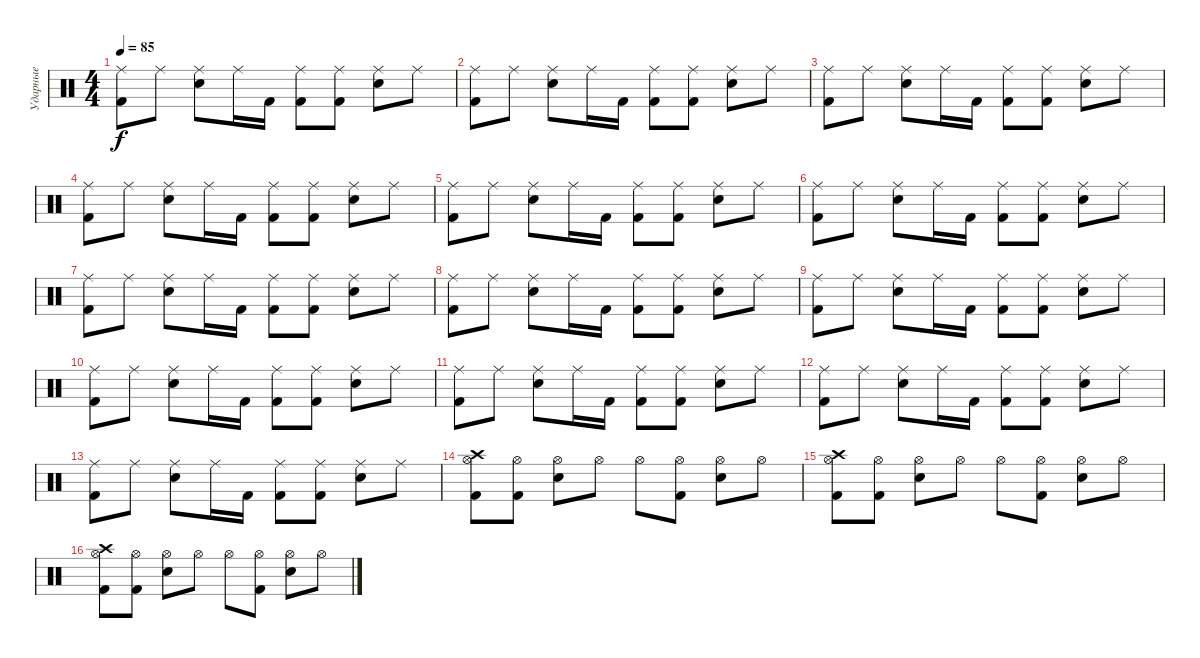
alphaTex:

\track ("Ударные" "Ударные") {instrument percussion}
\staff {score}
\articulation defaults
\ts (4 4)
\tempo 85
\clef neutral
\ks c
("Ride (middle)" "Kick (hit) 2").8{dy f} "Ride (middle)".8 ("Ride (middle)" "Snare (hit) 2").8 "Ride (middle)".16 "Kick (hit) 2".16 ("Ride (middle)" "Kick (hit) 2").8 ("Ride (middle)" "Kick (hit) 2").8 ("Ride (middle)" "Snare (hit) 2").8 "Ride (middle)".8 |
("Ride (middle)" "Kick (hit) 2").8 "Ride (middle)".8 ("Ride (middle)" "Snare (hit) 2").8 "Ride (middle)".16 "Kick (hit) 2".16 ("Ride (middle)" "Kick (hit) 2").8 ("Ride (middle)" "Kick (hit) 2").8 ("Ride (middle)" "Snare (hit) 2").8 "Ride (middle)".8 |
("Ride (middle)" "Kick (hit) 2").8 "Ride (middle)".8 ("Ride (middle)" "Snare (hit) 2").8 "Ride (middle)".16 "Kick (hit) 2".16 ("Ride (middle)" "Kick (hit) 2").8 ("Ride (middle)" "Kick (hit) 2").8 ("Ride (middle)" "Snare (hit) 2").8 "Ride (middle)".8 |
("Ride (middle)" "Kick (hit) 2").8 "Ride (middle)".8 ("Ride (middle)" "Snare (hit) 2").8 "Ride (middle)".16 "Kick (hit) 2".16 ("Ride (middle)" "Kick (hit) 2").8 ("Ride (middle)" "Kick (hit) 2").8 ("Ride (middle)" "Snare (hit) 2").8 "Ride (middle)".8 |
("Ride (middle)" "Kick (hit) 2").8 "Ride (middle)".8 ("Ride (middle)" "Snare (hit) 2").8 "Ride (middle)".16 "Kick (hit) 2".16 ("Ride (middle)" "Kick (hit) 2").8 ("Ride (middle)" "Kick (hit) 2").8 ("Ride (middle)" "Snare (hit) 2").8 "Ride (middle)".8 |
("Ride (middle)" "Kick (hit) 2").8 "Ride (middle)".8 ("Ride (middle)" "Snare (hit) 2").8 "Ride (middle)".16 "Kick (hit) 2".16 ("Ride (middle)" "Kick (hit) 2").8 ("Ride (middle)" "Kick (hit) 2").8 ("Ride (middle)" "Snare (hit) 2").8 "Ride (middle)".8 |
("Ride (middle)" "Kick (hit) 2").8 "Ride (middle)".8 ("Ride (middle)" "Snare (hit) 2").8 "Ride (middle)".16 "Kick (hit) 2".16 ("Ride (middle)" "Kick (hit) 2").8 ("Ride (middle)" "Kick (hit) 2").8 ("Ride (middle)" "Snare (hit) 2").8 "Ride (middle)".8 |
("Ride (middle)" "Kick (hit) 2").8 "Ride (middle)".8 ("Ride (middle)" "Snare (hit) 2").8 "Ride (middle)".16 "Kick (hit) 2".16 ("Ride (middle)" "Kick (hit) 2").8 ("Ride (middle)" "Kick (hit) 2").8 ("Ride (middle)" "Snare (hit) 2").8 "Ride (middle)".8 |
("Ride (middle)" "Kick (hit) 2").8 "Ride (middle)".8 ("Ride (middle)" "Snare (hit) 2").8 "Ride (middle)".16 "Kick (hit) 2".16 ("Ride (middle)" "Kick (hit) 2").8 ("Ride (middle)" "Kick (hit) 2").8 ("Ride (middle)" "Snare (hit) 2").8 "Ride (middle)".8 |
("Ride (middle)" "Kick (hit) 2").8 "Ride (middle)".8 ("Ride (middle)" "Snare (hit) 2").8 "Ride (middle)".16 "Kick (hit) 2".16 ("Ride (middle)" "Kick (hit) 2").8 ("Ride (middle)" "Kick (hit) 2").8 ("Ride (middle)" "Snare (hit) 2").8 "Ride (middle)".8 |
("Ride (middle)" "Kick (hit) 2").8 "Ride (middle)".8 ("Ride (middle)" "Snare (hit) 2").8 "Ride (middle)".16 "Kick (hit) 2".16 ("Ride (middle)" "Kick (hit) 2").8 ("Ride (middle)" "Kick (hit) 2").8 ("Ride (middle)" "Snare (hit) 2").8 "Ride (middle)".8 |
("Ride (middle)" "Kick (hit) 2").8 "Ride (middle)".8 ("Ride (middle)" "Snare (hit) 2").8 "Ride (middle)".16 "Kick (hit) 2".16 ("Ride (middle)" "Kick (hit) 2").8 ("Ride (middle)" "Kick (hit) 2").8 ("Ride (middle)" "Snare (hit) 2").8 "Ride (middle)".8 |
("Ride (middle)" "Kick (hit) 2").8 "Ride (middle)".8 ("Ride (middle)" "Snare (hit) 2").8 "Ride (middle)".16 "Kick (hit) 2".16 ("Ride (middle)" "Kick (hit) 2").8 ("Ride (middle)" "Kick (hit) 2").8 ("Ride (middle)" "Snare (hit) 2").8 "Ride (middle)".8 |
("Hi-Hat (open)" "Crash high (hit)" "Kick (hit) 2").8 ("Hi-Hat (open)" "Kick (hit) 2").8 ("Hi-Hat (open)" "Snare (hit) 2").8 "Hi-Hat (open)".8 "Hi-Hat (open)".8 ("Hi-Hat (open)" "Kick (hit) 2").8 ("Hi-Hat (open)" "Snare (hit) 2").8 "Hi-Hat (open)".8 |
("Hi-Hat (open)" "Crash high (hit)" "Kick (hit) 2").8 ("Hi-Hat (open)" "Kick (hit) 2").8 ("Hi-Hat (open)" "Snare (hit) 2").8 "Hi-Hat (open)".8 "Hi-Hat (open)".8 ("Hi-Hat (open)" "Kick (hit) 2").8 ("Hi-Hat (open)" "Snare (hit) 2").8 "Hi-Hat (open)".8 |
("Hi-Hat (open)" "Crash high (hit)" "Kick (hit) 2").8 ("Hi-Hat (open)" "Kick (hit) 2").8 ("Hi-Hat (open)" "Snare (hit) 2").8 "Hi-Hat (open)".8 "Hi-Hat (open)".8 ("Hi-Hat (open)" "Kick (hit) 2").8 ("Hi-Hat (open)" "Snare (hit) 2").8 "Hi-Hat (open)".8
